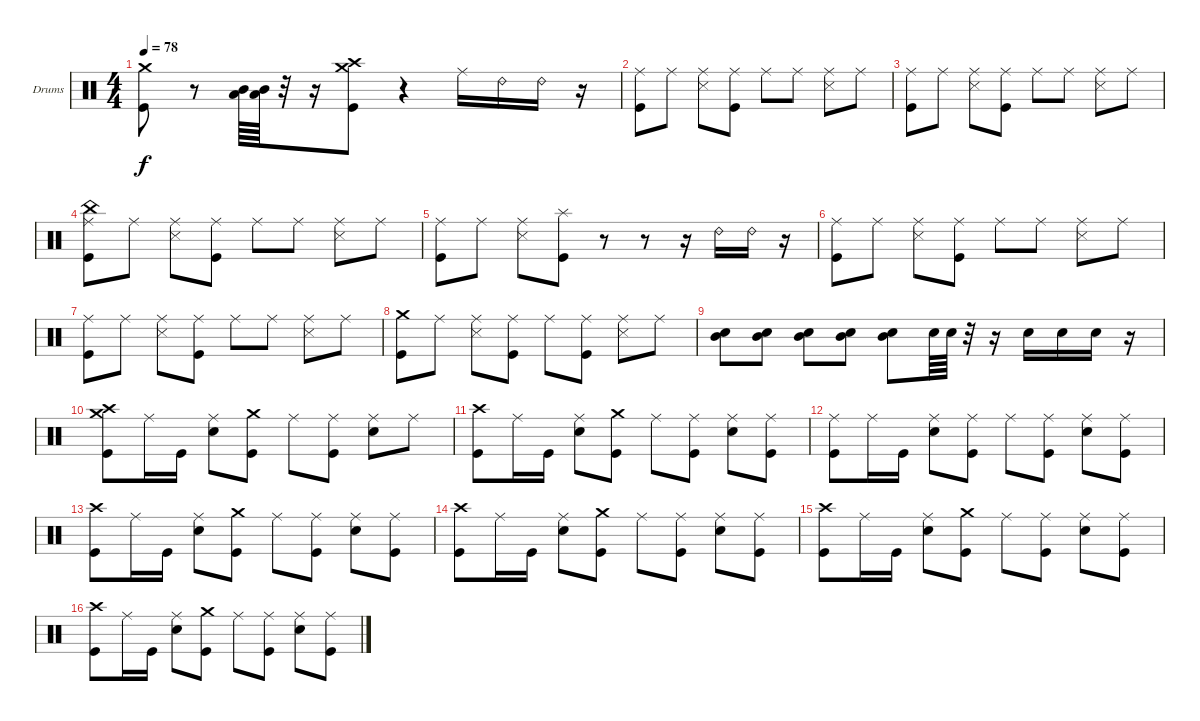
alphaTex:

\defaultSystemsLayout 4
\bracketExtendMode nobrackets
\firstSystemTrackNameOrientation horizontal
\otherSystemsTrackNameOrientation horizontal
\track ("Dave Krusen" "Drums") {instrument percussion}
\staff {score}
\articulation defaults
\ts (4 4)
\tempo 78
\clef neutral
\ks c
("Crash medium (hit)" "Kick (hit)").8{dy f} r.8 ("Mid Tom (hit)" "Low Tom (hit)").64 ("Mid Tom (hit)" "Low Tom (hit)").64 r.32 r.16 ("Crash high (hit)" "Crash medium (hit)" "Kick (hit)").8 r.4 "Ride (middle)".16 "Ride (bell) 2".16 "Ride (bell) 2".16 r.16 |
("Ride (middle)" "Kick (hit)").8 "Ride (middle)".8 ("Ride (middle)" "Snare (side stick) 3").8 ("Ride (middle)" "Kick (hit)").8 "Ride (middle)".8 "Ride (middle)".8 ("Ride (middle)" "Snare (side stick) 3").8 "Ride (middle)".8 |
("Ride (middle)" "Kick (hit)").8 "Ride (middle)".8 ("Ride (middle)" "Snare (side stick) 3").8 ("Ride (middle)" "Kick (hit)").8 "Ride (middle)".8 "Ride (middle)".8 ("Ride (middle)" "Snare (side stick) 3").8 "Ride (middle)".8 |
("China (hit)" "Ride (middle)" "Kick (hit)").8 "Ride (middle)".8 ("Ride (middle)" "Snare (side stick) 3").8 ("Ride (middle)" "Kick (hit)").8 "Ride (middle)".8 "Ride (middle)".8 ("Ride (middle)" "Snare (side stick) 3").8 "Ride (middle)".8 |
("Ride (middle)" "Kick (hit)").8 "Ride (middle)".8 ("Ride (middle)" "Snare (side stick) 3").8 ("Splash (hit)" "Kick (hit)").8 r.8 r.8 r.16 "Ride (bell) 2".16 "Ride (bell) 2".16 r.16 |
("Ride (middle)" "Kick (hit)").8 "Ride (middle)".8 ("Ride (middle)" "Snare (side stick) 3").8 ("Ride (middle)" "Kick (hit)").8 "Ride (middle)".8 "Ride (middle)".8 ("Ride (middle)" "Snare (side stick) 3").8 "Ride (middle)".8 |
("Ride (middle)" "Kick (hit)").8 "Ride (middle)".8 ("Ride (middle)" "Snare (side stick) 3").8 ("Ride (middle)" "Kick (hit)").8 "Ride (middle)".8 "Ride (middle)".8 ("Ride (middle)" "Snare (side stick) 3").8 "Ride (middle)".8 |
("Crash medium (hit)" "Kick (hit)").8 "Ride (middle)".8 ("Ride (middle)" "Snare (side stick) 3").8 ("Ride (middle)" "Kick (hit)").8 "Ride (middle)".8 ("Ride (middle)" "Kick (hit)").8 ("Ride (middle)" "Snare (side stick) 3").8 "Ride (middle)".8 |
("Mid Tom (hit)" "Snare (hit) 2").8 ("Mid Tom (hit)" "Snare (hit) 2").8 ("Mid Tom (hit)" "Snare (hit) 2").8 ("Mid Tom (hit)" "Snare (hit) 2").8 ("Mid Tom (hit)" "Snare (hit) 2").8 "Snare (hit) 2".64 "Snare (hit) 2".64 r.32 r.16 "Snare (hit) 2".16 "Snare (hit) 2".16 "Snare (hit) 2".16 r.16 |
("Crash high (hit)" "Crash medium (hit)" "Kick (hit)").8 "Ride (middle)".16 "Kick (hit)".16 ("Ride (middle)" "Snare (hit) 2").8 ("Crash medium (hit)" "Kick (hit)").8 "Ride (middle)".8 ("Ride (middle)" "Kick (hit)").8 ("Ride (middle)" "Snare (hit) 2").8 "Ride (middle)".8 |
("Crash high (hit)" "Kick (hit)").8 "Ride (middle)".16 "Kick (hit)".16 ("Ride (middle)" "Snare (hit) 2").8 ("Crash medium (hit)" "Kick (hit)").8 "Ride (middle)".8 ("Ride (middle)" "Kick (hit)").8 ("Ride (middle)" "Snare (hit) 2").8 ("Ride (middle)" "Kick (hit)").8 |
("Ride (middle)" "Kick (hit)").8 "Ride (middle)".16 "Kick (hit)".16 ("Ride (middle)" "Snare (hit) 2").8 ("Ride (middle)" "Kick (hit)").8 "Ride (middle)".8 ("Ride (middle)" "Kick (hit)").8 ("Ride (middle)" "Snare (hit) 2").8 ("Ride (middle)" "Kick (hit)").8 |
("Crash high (hit)" "Kick (hit)").8 "Ride (middle)".16 "Kick (hit)".16 ("Ride (middle)" "Snare (hit) 2").8 ("Crash medium (hit)" "Kick (hit)").8 "Ride (middle)".8 ("Ride (middle)" "Kick (hit)").8 ("Ride (middle)" "Snare (hit) 2").8 ("Ride (middle)" "Kick (hit)").8 |
("Crash high (hit)" "Kick (hit)").8 "Ride (middle)".16 "Kick (hit)".16 ("Ride (middle)" "Snare (hit) 2").8 ("Crash medium (hit)" "Kick (hit)").8 "Ride (middle)".8 ("Ride (middle)" "Kick (hit)").8 ("Ride (middle)" "Snare (hit) 2").8 ("Ride (middle)" "Kick (hit)").8 |
("Crash high (hit)" "Kick (hit)").8 "Ride (middle)".16 "Kick (hit)".16 ("Ride (middle)" "Snare (hit) 2").8 ("Crash medium (hit)" "Kick (hit)").8 "Ride (middle)".8 ("Ride (middle)" "Kick (hit)").8 ("Ride (middle)" "Snare (hit) 2").8 ("Ride (middle)" "Kick (hit)").8 |
("Crash high (hit)" "Kick (hit)").8 "Ride (middle)".16 "Kick (hit)".16 ("Ride (middle)" "Snare (hit) 2").8 ("Crash medium (hit)" "Kick (hit)").8 "Ride (middle)".8 ("Ride (middle)" "Kick (hit)").8 ("Ride (middle)" "Snare (hit) 2").8 ("Ride (middle)" "Kick (hit)").8
